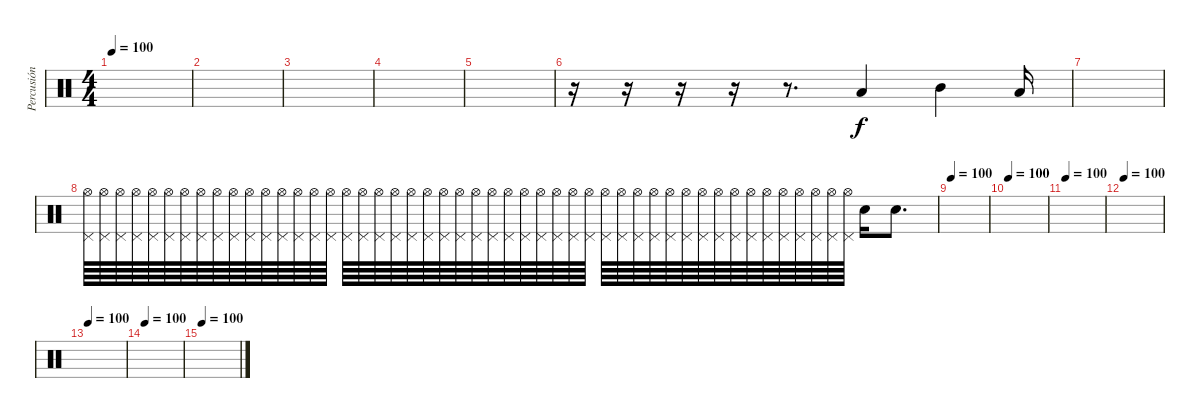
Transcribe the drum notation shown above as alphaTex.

\track ("Percusión" "Percusión") {instrument percussion}
\staff {score}
\articulation defaults
\ts (4 4)
\tempo 100
\clef neutral
\ks c
|
|
|
|
|
r.16 r.16 r.16 r.16 r.8{d} "Low Tom (hit)".4 "Mid Tom (hit)".4 "Low Tom (hit)".16 |
|
("Hi-Hat (open)" "Pedal Hi-Hat (hit)").64{volume 0} ("Hi-Hat (open)" "Pedal Hi-Hat (hit)").64{volume 13} ("Hi-Hat (open)" "Pedal Hi-Hat (hit)").64 ("Hi-Hat (open)" "Pedal Hi-Hat (hit)").64 ("Hi-Hat (open)" "Pedal Hi-Hat (hit)").64 ("Hi-Hat (open)" "Pedal Hi-Hat (hit)").64 ("Hi-Hat (open)" "Pedal Hi-Hat (hit)").64 ("Hi-Hat (open)" "Pedal Hi-Hat (hit)").64 ("Hi-Hat (open)" "Pedal Hi-Hat (hit)").64 ("Hi-Hat (open)" "Pedal Hi-Hat (hit)").64 ("Hi-Hat (open)" "Pedal Hi-Hat (hit)").64 ("Hi-Hat (open)" "Pedal Hi-Hat (hit)").64 ("Hi-Hat (open)" "Pedal Hi-Hat (hit)").64 ("Hi-Hat (open)" "Pedal Hi-Hat (hit)").64 ("Hi-Hat (open)" "Pedal Hi-Hat (hit)").64 ("Hi-Hat (open)" "Pedal Hi-Hat (hit)").64 ("Hi-Hat (open)" "Pedal Hi-Hat (hit)").64 ("Hi-Hat (open)" "Pedal Hi-Hat (hit)").64 ("Hi-Hat (open)" "Pedal Hi-Hat (hit)").64 ("Hi-Hat (open)" "Pedal Hi-Hat (hit)").64 ("Hi-Hat (open)" "Pedal Hi-Hat (hit)").64 ("Hi-Hat (open)" "Pedal Hi-Hat (hit)").64 ("Hi-Hat (open)" "Pedal Hi-Hat (hit)").64 ("Hi-Hat (open)" "Pedal Hi-Hat (hit)").64 ("Hi-Hat (open)" "Pedal Hi-Hat (hit)").64 ("Hi-Hat (open)" "Pedal Hi-Hat (hit)").64 ("Hi-Hat (open)" "Pedal Hi-Hat (hit)").64 ("Hi-Hat (open)" "Pedal Hi-Hat (hit)").64 ("Hi-Hat (open)" "Pedal Hi-Hat (hit)").64 ("Hi-Hat (open)" "Pedal Hi-Hat (hit)").64 ("Hi-Hat (open)" "Pedal Hi-Hat (hit)").64 ("Hi-Hat (open)" "Pedal Hi-Hat (hit)").64 ("Hi-Hat (open)" "Pedal Hi-Hat (hit)").64 ("Hi-Hat (open)" "Pedal Hi-Hat (hit)").64 ("Hi-Hat (open)" "Pedal Hi-Hat (hit)").64 ("Hi-Hat (open)" "Pedal Hi-Hat (hit)").64 ("Hi-Hat (open)" "Pedal Hi-Hat (hit)").64 ("Hi-Hat (open)" "Pedal Hi-Hat (hit)").64 ("Hi-Hat (open)" "Pedal Hi-Hat (hit)").64 ("Hi-Hat (open)" "Pedal Hi-Hat (hit)").64 ("Hi-Hat (open)" "Pedal Hi-Hat (hit)").64 ("Hi-Hat (open)" "Pedal Hi-Hat (hit)").64 ("Hi-Hat (open)" "Pedal Hi-Hat (hit)").64 ("Hi-Hat (open)" "Pedal Hi-Hat (hit)").64 ("Hi-Hat (open)" "Pedal Hi-Hat (hit)").64 ("Hi-Hat (open)" "Pedal Hi-Hat (hit)").64 ("Hi-Hat (open)" "Pedal Hi-Hat (hit)").64 ("Hi-Hat (open)" "Pedal Hi-Hat (hit)").64 "Electric Snare (hit)".16 "Electric Snare (hit)".8{d} |
\tempo 100
|
\tempo 100
|
\tempo 100
|
\tempo 100
|
\tempo 100
|
\tempo 100
|
\tempo 100
